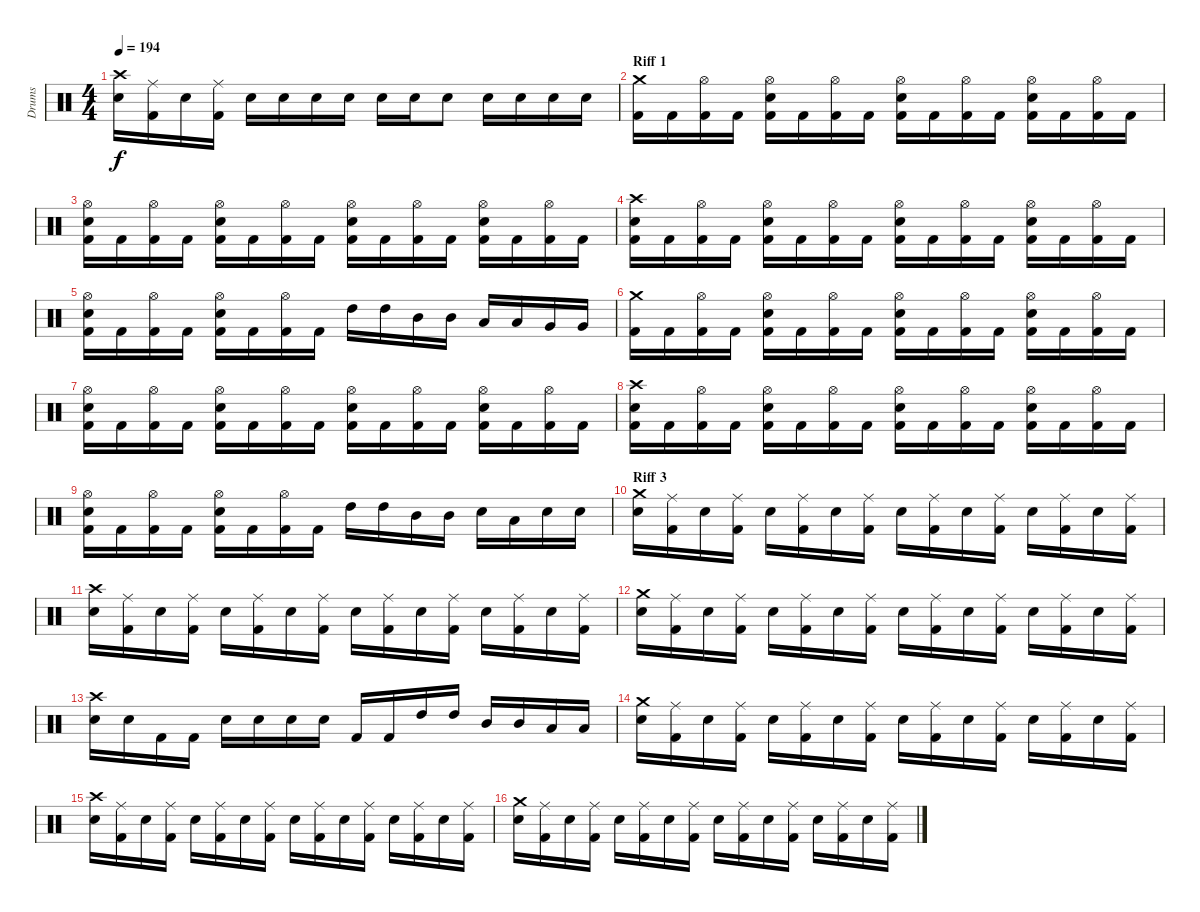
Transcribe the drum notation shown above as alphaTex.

\track ("Drums" "Drums") {instrument percussion}
\staff {score}
\articulation defaults
\ts (4 4)
\tempo 194
\clef neutral
\ks c
("Crash high (hit)" "Electric Snare (hit)").16{dy f} ("Ride (middle)" "Kick (hit) 2").16 "Electric Snare (hit)".16 ("Ride (middle)" "Kick (hit) 2").16 "Electric Snare (hit)".16 "Electric Snare (hit)".16 "Electric Snare (hit)".16 "Electric Snare (hit)".16 "Electric Snare (hit)".16 "Electric Snare (hit)".16 "Electric Snare (hit)".8 "Electric Snare (hit)".16 "Electric Snare (hit)".16 "Electric Snare (hit)".16 "Electric Snare (hit)".16 |
\section ("" "Riff 1")
("Crash medium (hit)" "Kick (hit) 2").16 "Kick (hit) 2".16 ("Hi-Hat (open)" "Kick (hit) 2").16 "Kick (hit) 2".16 ("Hi-Hat (open)" "Electric Snare (hit)" "Kick (hit) 2").16 "Kick (hit) 2".16 ("Hi-Hat (open)" "Kick (hit) 2").16 "Kick (hit) 2".16 ("Hi-Hat (open)" "Electric Snare (hit)" "Kick (hit) 2").16 "Kick (hit) 2".16 ("Hi-Hat (open)" "Kick (hit) 2").16 "Kick (hit) 2".16 ("Hi-Hat (open)" "Electric Snare (hit)" "Kick (hit) 2").16 "Kick (hit) 2".16 ("Hi-Hat (open)" "Kick (hit) 2").16 "Kick (hit) 2".16 |
("Hi-Hat (open)" "Electric Snare (hit)" "Kick (hit) 2").16 "Kick (hit) 2".16 ("Hi-Hat (open)" "Kick (hit) 2").16 "Kick (hit) 2".16 ("Hi-Hat (open)" "Electric Snare (hit)" "Kick (hit) 2").16 "Kick (hit) 2".16 ("Hi-Hat (open)" "Kick (hit) 2").16 "Kick (hit) 2".16 ("Hi-Hat (open)" "Electric Snare (hit)" "Kick (hit) 2").16 "Kick (hit) 2".16 ("Hi-Hat (open)" "Kick (hit) 2").16 "Kick (hit) 2".16 ("Hi-Hat (open)" "Electric Snare (hit)" "Kick (hit) 2").16 "Kick (hit) 2".16 ("Hi-Hat (open)" "Kick (hit) 2").16 "Kick (hit) 2".16 |
("Crash high (hit)" "Electric Snare (hit)" "Kick (hit) 2").16 "Kick (hit) 2".16 ("Hi-Hat (open)" "Kick (hit) 2").16 "Kick (hit) 2".16 ("Hi-Hat (open)" "Electric Snare (hit)" "Kick (hit) 2").16 "Kick (hit) 2".16 ("Hi-Hat (open)" "Kick (hit) 2").16 "Kick (hit) 2".16 ("Hi-Hat (open)" "Electric Snare (hit)" "Kick (hit) 2").16 "Kick (hit) 2".16 ("Hi-Hat (open)" "Kick (hit) 2").16 "Kick (hit) 2".16 ("Hi-Hat (open)" "Electric Snare (hit)" "Kick (hit) 2").16 "Kick (hit) 2".16 ("Hi-Hat (open)" "Kick (hit) 2").16 "Kick (hit) 2".16 |
("Hi-Hat (open)" "Electric Snare (hit)" "Kick (hit) 2").16 "Kick (hit) 2".16 ("Hi-Hat (open)" "Kick (hit) 2").16 "Kick (hit) 2".16 ("Hi-Hat (open)" "Electric Snare (hit)" "Kick (hit) 2").16 "Kick (hit) 2".16 ("Hi-Hat (open)" "Kick (hit) 2").16 "Kick (hit) 2".16 "High Tom (hit)".16 "High Tom (hit)".16 "Mid Tom (hit)".16 "Mid Tom (hit)".16 "Low Tom (hit)".16 "Low Tom (hit)".16 "Very Low Tom (hit)".16 "Very Low Tom (hit)".16 |
("Crash medium (hit)" "Kick (hit) 2").16 "Kick (hit) 2".16 ("Hi-Hat (open)" "Kick (hit) 2").16 "Kick (hit) 2".16 ("Hi-Hat (open)" "Electric Snare (hit)" "Kick (hit) 2").16 "Kick (hit) 2".16 ("Hi-Hat (open)" "Kick (hit) 2").16 "Kick (hit) 2".16 ("Hi-Hat (open)" "Electric Snare (hit)" "Kick (hit) 2").16 "Kick (hit) 2".16 ("Hi-Hat (open)" "Kick (hit) 2").16 "Kick (hit) 2".16 ("Hi-Hat (open)" "Electric Snare (hit)" "Kick (hit) 2").16 "Kick (hit) 2".16 ("Hi-Hat (open)" "Kick (hit) 2").16 "Kick (hit) 2".16 |
("Hi-Hat (open)" "Electric Snare (hit)" "Kick (hit) 2").16 "Kick (hit) 2".16 ("Hi-Hat (open)" "Kick (hit) 2").16 "Kick (hit) 2".16 ("Hi-Hat (open)" "Electric Snare (hit)" "Kick (hit) 2").16 "Kick (hit) 2".16 ("Hi-Hat (open)" "Kick (hit) 2").16 "Kick (hit) 2".16 ("Hi-Hat (open)" "Electric Snare (hit)" "Kick (hit) 2").16 "Kick (hit) 2".16 ("Hi-Hat (open)" "Kick (hit) 2").16 "Kick (hit) 2".16 ("Hi-Hat (open)" "Electric Snare (hit)" "Kick (hit) 2").16 "Kick (hit) 2".16 ("Hi-Hat (open)" "Kick (hit) 2").16 "Kick (hit) 2".16 |
("Crash high (hit)" "Electric Snare (hit)" "Kick (hit) 2").16 "Kick (hit) 2".16 ("Hi-Hat (open)" "Kick (hit) 2").16 "Kick (hit) 2".16 ("Hi-Hat (open)" "Electric Snare (hit)" "Kick (hit) 2").16 "Kick (hit) 2".16 ("Hi-Hat (open)" "Kick (hit) 2").16 "Kick (hit) 2".16 ("Hi-Hat (open)" "Electric Snare (hit)" "Kick (hit) 2").16 "Kick (hit) 2".16 ("Hi-Hat (open)" "Kick (hit) 2").16 "Kick (hit) 2".16 ("Hi-Hat (open)" "Electric Snare (hit)" "Kick (hit) 2").16 "Kick (hit) 2".16 ("Hi-Hat (open)" "Kick (hit) 2").16 "Kick (hit) 2".16 |
("Hi-Hat (open)" "Electric Snare (hit)" "Kick (hit) 2").16 "Kick (hit) 2".16 ("Hi-Hat (open)" "Kick (hit) 2").16 "Kick (hit) 2".16 ("Hi-Hat (open)" "Electric Snare (hit)" "Kick (hit) 2").16 "Kick (hit) 2".16 ("Hi-Hat (open)" "Kick (hit) 2").16 "Kick (hit) 2".16 "High Tom (hit)".16 "High Tom (hit)".16 "Mid Tom (hit)".16 "Mid Tom (hit)".16 "Electric Snare (hit)".16 "Low Tom (hit)".16 "Electric Snare (hit)".16 "Electric Snare (hit)".16 |
\section ("" "Riff 3")
("Crash medium (hit)" "Electric Snare (hit)").16 ("Ride (middle)" "Kick (hit) 2").16 "Electric Snare (hit)".16 ("Ride (middle)" "Kick (hit) 2").16 "Electric Snare (hit)".16 ("Ride (middle)" "Kick (hit) 2").16 "Electric Snare (hit)".16 ("Ride (middle)" "Kick (hit) 2").16 "Electric Snare (hit)".16 ("Ride (middle)" "Kick (hit) 2").16 "Electric Snare (hit)".16 ("Ride (middle)" "Kick (hit) 2").16 "Electric Snare (hit)".16 ("Ride (middle)" "Kick (hit) 2").16 "Electric Snare (hit)".16 ("Ride (middle)" "Kick (hit) 2").16 |
("Crash high (hit)" "Electric Snare (hit)").16 ("Ride (middle)" "Kick (hit) 2").16 "Electric Snare (hit)".16 ("Ride (middle)" "Kick (hit) 2").16 "Electric Snare (hit)".16 ("Ride (middle)" "Kick (hit) 2").16 "Electric Snare (hit)".16 ("Ride (middle)" "Kick (hit) 2").16 "Electric Snare (hit)".16 ("Ride (middle)" "Kick (hit) 2").16 "Electric Snare (hit)".16 ("Ride (middle)" "Kick (hit) 2").16 "Electric Snare (hit)".16 ("Ride (middle)" "Kick (hit) 2").16 "Electric Snare (hit)".16 ("Ride (middle)" "Kick (hit) 2").16 |
("Crash medium (hit)" "Electric Snare (hit)").16 ("Ride (middle)" "Kick (hit) 2").16 "Electric Snare (hit)".16 ("Ride (middle)" "Kick (hit) 2").16 "Electric Snare (hit)".16 ("Ride (middle)" "Kick (hit) 2").16 "Electric Snare (hit)".16 ("Ride (middle)" "Kick (hit) 2").16 "Electric Snare (hit)".16 ("Ride (middle)" "Kick (hit) 2").16 "Electric Snare (hit)".16 ("Ride (middle)" "Kick (hit) 2").16 "Electric Snare (hit)".16 ("Ride (middle)" "Kick (hit) 2").16 "Electric Snare (hit)".16 ("Ride (middle)" "Kick (hit) 2").16 |
("Crash high (hit)" "Electric Snare (hit)").16 "Electric Snare (hit)".16 "Kick (hit) 2".16 "Kick (hit) 2".16 "Electric Snare (hit)".16 "Electric Snare (hit)".16 "Electric Snare (hit)".16 "Electric Snare (hit)".16 "Kick (hit) 2".16 "Kick (hit) 2".16 "High Tom (hit)".16 "High Tom (hit)".16 "Mid Tom (hit)".16 "Mid Tom (hit)".16 "Low Tom (hit)".16 "Low Tom (hit)".16 |
("Crash medium (hit)" "Electric Snare (hit)").16 ("Ride (middle)" "Kick (hit) 2").16 "Electric Snare (hit)".16 ("Ride (middle)" "Kick (hit) 2").16 "Electric Snare (hit)".16 ("Ride (middle)" "Kick (hit) 2").16 "Electric Snare (hit)".16 ("Ride (middle)" "Kick (hit) 2").16 "Electric Snare (hit)".16 ("Ride (middle)" "Kick (hit) 2").16 "Electric Snare (hit)".16 ("Ride (middle)" "Kick (hit) 2").16 "Electric Snare (hit)".16 ("Ride (middle)" "Kick (hit) 2").16 "Electric Snare (hit)".16 ("Ride (middle)" "Kick (hit) 2").16 |
("Crash high (hit)" "Electric Snare (hit)").16 ("Ride (middle)" "Kick (hit) 2").16 "Electric Snare (hit)".16 ("Ride (middle)" "Kick (hit) 2").16 "Electric Snare (hit)".16 ("Ride (middle)" "Kick (hit) 2").16 "Electric Snare (hit)".16 ("Ride (middle)" "Kick (hit) 2").16 "Electric Snare (hit)".16 ("Ride (middle)" "Kick (hit) 2").16 "Electric Snare (hit)".16 ("Ride (middle)" "Kick (hit) 2").16 "Electric Snare (hit)".16 ("Ride (middle)" "Kick (hit) 2").16 "Electric Snare (hit)".16 ("Ride (middle)" "Kick (hit) 2").16 |
("Crash medium (hit)" "Electric Snare (hit)").16 ("Ride (middle)" "Kick (hit) 2").16 "Electric Snare (hit)".16 ("Ride (middle)" "Kick (hit) 2").16 "Electric Snare (hit)".16 ("Ride (middle)" "Kick (hit) 2").16 "Electric Snare (hit)".16 ("Ride (middle)" "Kick (hit) 2").16 "Electric Snare (hit)".16 ("Ride (middle)" "Kick (hit) 2").16 "Electric Snare (hit)".16 ("Ride (middle)" "Kick (hit) 2").16 "Electric Snare (hit)".16 ("Ride (middle)" "Kick (hit) 2").16 "Electric Snare (hit)".16 ("Ride (middle)" "Kick (hit) 2").16
